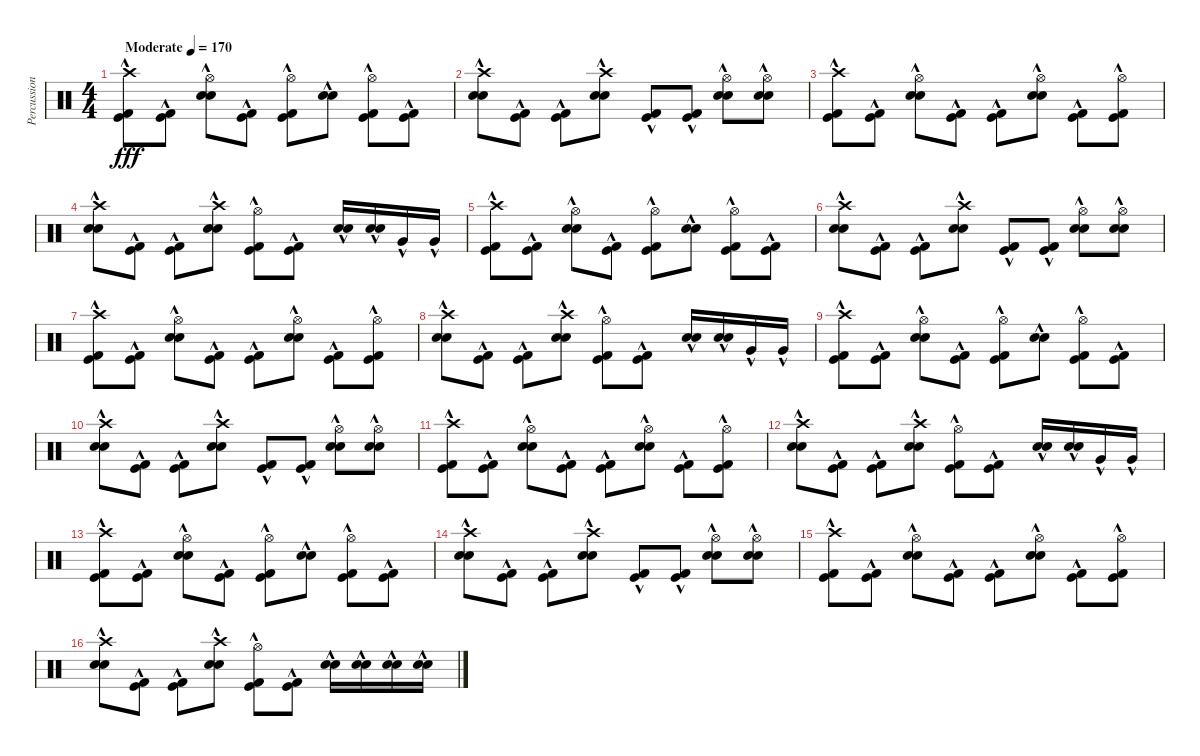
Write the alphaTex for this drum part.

\track ("Percussion" "Percussion") {instrument percussion}
\staff {score}
\articulation defaults
\ts (4 4)
\tempo (170 "Moderate")
\clef neutral
\ks c
("Crash high (hit)" "Kick (hit) 2"{hac} "Kick (hit)"{hac}).8{dy fff} ("Kick (hit) 2"{hac} "Kick (hit)"{hac}).8 ("Hi-Hat (open)" "Snare (hit) 2"{hac} "Electric Snare (hit)"{hac}).8 ("Kick (hit) 2"{hac} "Kick (hit)"{hac}).8 ("Hi-Hat (open)" "Kick (hit) 2"{hac} "Kick (hit)"{hac}).8 ("Snare (hit) 2"{hac} "Electric Snare (hit)"{hac}).8 ("Hi-Hat (open)" "Kick (hit) 2"{hac} "Kick (hit)"{hac}).8 ("Kick (hit) 2"{hac} "Kick (hit)"{hac}).8 |
("Crash high (hit)" "Snare (hit) 2"{hac} "Electric Snare (hit)"{hac}).8 ("Kick (hit) 2"{hac} "Kick (hit)"{hac}).8 ("Kick (hit) 2"{hac} "Kick (hit)"{hac}).8 ("Crash high (hit)" "Snare (hit) 2"{hac} "Electric Snare (hit)"{hac}).8 ("Kick (hit) 2"{hac} "Kick (hit)"{hac}).8 ("Kick (hit) 2"{hac} "Kick (hit)"{hac}).8 ("Hi-Hat (open)" "Snare (hit) 2"{hac} "Electric Snare (hit)"{hac}).8 ("Hi-Hat (open)" "Snare (hit) 2"{hac} "Electric Snare (hit)"{hac}).8 |
("Crash high (hit)" "Kick (hit) 2"{hac} "Kick (hit)"{hac}).8 ("Kick (hit) 2"{hac} "Kick (hit)"{hac}).8 ("Hi-Hat (open)" "Snare (hit) 2"{hac} "Electric Snare (hit)"{hac}).8 ("Kick (hit) 2"{hac} "Kick (hit)"{hac}).8 ("Kick (hit) 2"{hac} "Kick (hit)"{hac}).8 ("Hi-Hat (open)" "Snare (hit) 2"{hac} "Electric Snare (hit)"{hac}).8 ("Kick (hit) 2"{hac} "Kick (hit)"{hac}).8 ("Hi-Hat (open)" "Kick (hit) 2"{hac} "Kick (hit)"{hac}).8 |
("Crash high (hit)" "Snare (hit) 2"{hac} "Electric Snare (hit)"{hac}).8 ("Kick (hit) 2"{hac} "Kick (hit)"{hac}).8 ("Kick (hit) 2"{hac} "Kick (hit)"{hac}).8 ("Crash high (hit)" "Snare (hit) 2"{hac} "Electric Snare (hit)"{hac}).8 ("Hi-Hat (open)" "Kick (hit) 2"{hac} "Kick (hit)"{hac}).8 ("Kick (hit) 2"{hac} "Kick (hit)"{hac}).8 ("Snare (hit) 2"{hac} "Electric Snare (hit)"{hac}).16 ("Snare (hit) 2"{hac} "Electric Snare (hit)"{hac}).16 "Very Low Tom (hit)"{hac}.16 "Very Low Tom (hit)"{hac}.16 |
("Crash high (hit)" "Kick (hit) 2"{hac} "Kick (hit)"{hac}).8 ("Kick (hit) 2"{hac} "Kick (hit)"{hac}).8 ("Hi-Hat (open)" "Snare (hit) 2"{hac} "Electric Snare (hit)"{hac}).8 ("Kick (hit) 2"{hac} "Kick (hit)"{hac}).8 ("Hi-Hat (open)" "Kick (hit) 2"{hac} "Kick (hit)"{hac}).8 ("Snare (hit) 2"{hac} "Electric Snare (hit)"{hac}).8 ("Hi-Hat (open)" "Kick (hit) 2"{hac} "Kick (hit)"{hac}).8 ("Kick (hit) 2"{hac} "Kick (hit)"{hac}).8 |
("Crash high (hit)" "Snare (hit) 2"{hac} "Electric Snare (hit)"{hac}).8 ("Kick (hit) 2"{hac} "Kick (hit)"{hac}).8 ("Kick (hit) 2"{hac} "Kick (hit)"{hac}).8 ("Crash high (hit)" "Snare (hit) 2"{hac} "Electric Snare (hit)"{hac}).8 ("Kick (hit) 2"{hac} "Kick (hit)"{hac}).8 ("Kick (hit) 2"{hac} "Kick (hit)"{hac}).8 ("Hi-Hat (open)" "Snare (hit) 2"{hac} "Electric Snare (hit)"{hac}).8 ("Hi-Hat (open)" "Snare (hit) 2"{hac} "Electric Snare (hit)"{hac}).8 |
("Crash high (hit)" "Kick (hit) 2"{hac} "Kick (hit)"{hac}).8 ("Kick (hit) 2"{hac} "Kick (hit)"{hac}).8 ("Hi-Hat (open)" "Snare (hit) 2"{hac} "Electric Snare (hit)"{hac}).8 ("Kick (hit) 2"{hac} "Kick (hit)"{hac}).8 ("Kick (hit) 2"{hac} "Kick (hit)"{hac}).8 ("Hi-Hat (open)" "Snare (hit) 2"{hac} "Electric Snare (hit)"{hac}).8 ("Kick (hit) 2"{hac} "Kick (hit)"{hac}).8 ("Hi-Hat (open)" "Kick (hit) 2"{hac} "Kick (hit)"{hac}).8 |
("Crash high (hit)" "Snare (hit) 2"{hac} "Electric Snare (hit)"{hac}).8 ("Kick (hit) 2"{hac} "Kick (hit)"{hac}).8 ("Kick (hit) 2"{hac} "Kick (hit)"{hac}).8 ("Crash high (hit)" "Snare (hit) 2"{hac} "Electric Snare (hit)"{hac}).8 ("Hi-Hat (open)" "Kick (hit) 2"{hac} "Kick (hit)"{hac}).8 ("Kick (hit) 2"{hac} "Kick (hit)"{hac}).8 ("Snare (hit) 2"{hac} "Electric Snare (hit)"{hac}).16 ("Snare (hit) 2"{hac} "Electric Snare (hit)"{hac}).16 "Very Low Tom (hit)"{hac}.16 "Very Low Tom (hit)"{hac}.16 |
("Crash high (hit)" "Kick (hit) 2"{hac} "Kick (hit)"{hac}).8 ("Kick (hit) 2"{hac} "Kick (hit)"{hac}).8 ("Hi-Hat (open)" "Snare (hit) 2"{hac} "Electric Snare (hit)"{hac}).8 ("Kick (hit) 2"{hac} "Kick (hit)"{hac}).8 ("Hi-Hat (open)" "Kick (hit) 2"{hac} "Kick (hit)"{hac}).8 ("Snare (hit) 2"{hac} "Electric Snare (hit)"{hac}).8 ("Hi-Hat (open)" "Kick (hit) 2"{hac} "Kick (hit)"{hac}).8 ("Kick (hit) 2"{hac} "Kick (hit)"{hac}).8 |
("Crash high (hit)" "Snare (hit) 2"{hac} "Electric Snare (hit)"{hac}).8 ("Kick (hit) 2"{hac} "Kick (hit)"{hac}).8 ("Kick (hit) 2"{hac} "Kick (hit)"{hac}).8 ("Crash high (hit)" "Snare (hit) 2"{hac} "Electric Snare (hit)"{hac}).8 ("Kick (hit) 2"{hac} "Kick (hit)"{hac}).8 ("Kick (hit) 2"{hac} "Kick (hit)"{hac}).8 ("Hi-Hat (open)" "Snare (hit) 2"{hac} "Electric Snare (hit)"{hac}).8 ("Hi-Hat (open)" "Snare (hit) 2"{hac} "Electric Snare (hit)"{hac}).8 |
("Crash high (hit)" "Kick (hit) 2"{hac} "Kick (hit)"{hac}).8 ("Kick (hit) 2"{hac} "Kick (hit)"{hac}).8 ("Hi-Hat (open)" "Snare (hit) 2"{hac} "Electric Snare (hit)"{hac}).8 ("Kick (hit) 2"{hac} "Kick (hit)"{hac}).8 ("Kick (hit) 2"{hac} "Kick (hit)"{hac}).8 ("Hi-Hat (open)" "Snare (hit) 2"{hac} "Electric Snare (hit)"{hac}).8 ("Kick (hit) 2"{hac} "Kick (hit)"{hac}).8 ("Hi-Hat (open)" "Kick (hit) 2"{hac} "Kick (hit)"{hac}).8 |
("Crash high (hit)" "Snare (hit) 2"{hac} "Electric Snare (hit)"{hac}).8 ("Kick (hit) 2"{hac} "Kick (hit)"{hac}).8 ("Kick (hit) 2"{hac} "Kick (hit)"{hac}).8 ("Crash high (hit)" "Snare (hit) 2"{hac} "Electric Snare (hit)"{hac}).8 ("Hi-Hat (open)" "Kick (hit) 2"{hac} "Kick (hit)"{hac}).8 ("Kick (hit) 2"{hac} "Kick (hit)"{hac}).8 ("Snare (hit) 2"{hac} "Electric Snare (hit)"{hac}).16 ("Snare (hit) 2"{hac} "Electric Snare (hit)"{hac}).16 "Very Low Tom (hit)"{hac}.16 "Very Low Tom (hit)"{hac}.16 |
("Crash high (hit)" "Kick (hit) 2"{hac} "Kick (hit)"{hac}).8 ("Kick (hit) 2"{hac} "Kick (hit)"{hac}).8 ("Hi-Hat (open)" "Snare (hit) 2"{hac} "Electric Snare (hit)"{hac}).8 ("Kick (hit) 2"{hac} "Kick (hit)"{hac}).8 ("Hi-Hat (open)" "Kick (hit) 2"{hac} "Kick (hit)"{hac}).8 ("Snare (hit) 2"{hac} "Electric Snare (hit)"{hac}).8 ("Hi-Hat (open)" "Kick (hit) 2"{hac} "Kick (hit)"{hac}).8 ("Kick (hit) 2"{hac} "Kick (hit)"{hac}).8 |
("Crash high (hit)" "Snare (hit) 2"{hac} "Electric Snare (hit)"{hac}).8 ("Kick (hit) 2"{hac} "Kick (hit)"{hac}).8 ("Kick (hit) 2"{hac} "Kick (hit)"{hac}).8 ("Crash high (hit)" "Snare (hit) 2"{hac} "Electric Snare (hit)"{hac}).8 ("Kick (hit) 2"{hac} "Kick (hit)"{hac}).8 ("Kick (hit) 2"{hac} "Kick (hit)"{hac}).8 ("Hi-Hat (open)" "Snare (hit) 2"{hac} "Electric Snare (hit)"{hac}).8 ("Hi-Hat (open)" "Snare (hit) 2"{hac} "Electric Snare (hit)"{hac}).8 |
("Crash high (hit)" "Kick (hit) 2"{hac} "Kick (hit)"{hac}).8 ("Kick (hit) 2"{hac} "Kick (hit)"{hac}).8 ("Hi-Hat (open)" "Snare (hit) 2"{hac} "Electric Snare (hit)"{hac}).8 ("Kick (hit) 2"{hac} "Kick (hit)"{hac}).8 ("Kick (hit) 2"{hac} "Kick (hit)"{hac}).8 ("Hi-Hat (open)" "Snare (hit) 2"{hac} "Electric Snare (hit)"{hac}).8 ("Kick (hit) 2"{hac} "Kick (hit)"{hac}).8 ("Hi-Hat (open)" "Kick (hit) 2"{hac} "Kick (hit)"{hac}).8 |
("Crash high (hit)" "Snare (hit) 2"{hac} "Electric Snare (hit)"{hac}).8 ("Kick (hit) 2"{hac} "Kick (hit)"{hac}).8 ("Kick (hit) 2"{hac} "Kick (hit)"{hac}).8 ("Crash high (hit)" "Snare (hit) 2"{hac} "Electric Snare (hit)"{hac}).8 ("Hi-Hat (open)" "Kick (hit) 2"{hac} "Kick (hit)"{hac}).8 ("Kick (hit) 2"{hac} "Kick (hit)"{hac}).8 ("Snare (hit) 2"{hac} "Electric Snare (hit)"{hac}).16 ("Snare (hit) 2"{hac} "Electric Snare (hit)"{hac}).16 ("Snare (hit) 2"{hac} "Electric Snare (hit)"{hac}).16 ("Snare (hit) 2"{hac} "Electric Snare (hit)"{hac}).16
